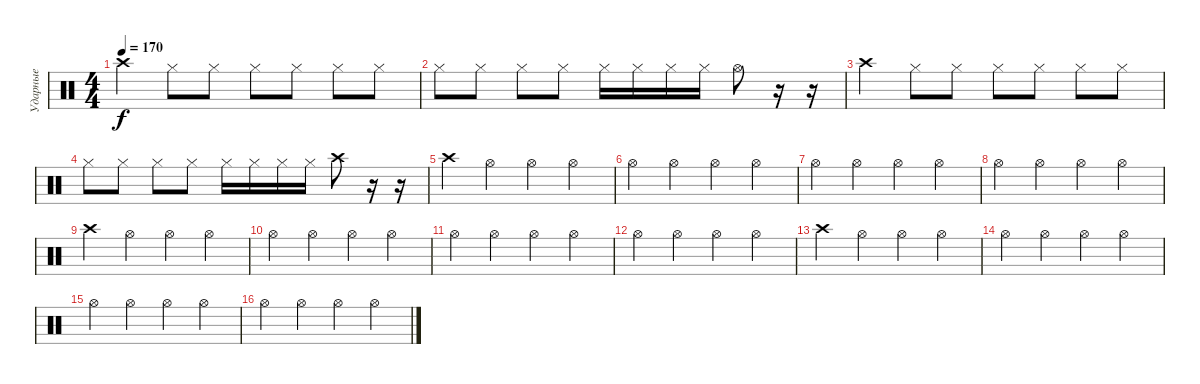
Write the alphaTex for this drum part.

\track ("Ударные" "Ударные") {instrument percussion}
\staff {score}
\articulation defaults
\ts (4 4)
\tempo 170
\clef neutral
\ks c "Crash high (hit)".4{dy f} "Hi-Hat (closed)".8 "Hi-Hat (closed)".8 "Hi-Hat (closed)".8 "Hi-Hat (closed)".8 "Hi-Hat (closed)".8 "Hi-Hat (closed)".8
|
"Hi-Hat (closed)".8 "Hi-Hat (closed)".8 "Hi-Hat (closed)".8 "Hi-Hat (closed)".8 "Hi-Hat (closed)".16 "Hi-Hat (closed)".16 "Hi-Hat (closed)".16 "Hi-Hat (closed)".16 "Hi-Hat (open)".8 r.16 r.16 |
"Crash high (hit)".4 "Hi-Hat (closed)".8 "Hi-Hat (closed)".8 "Hi-Hat (closed)".8 "Hi-Hat (closed)".8 "Hi-Hat (closed)".8 "Hi-Hat (closed)".8 |
"Hi-Hat (closed)".8 "Hi-Hat (closed)".8 "Hi-Hat (closed)".8 "Hi-Hat (closed)".8 "Hi-Hat (closed)".16 "Hi-Hat (closed)".16 "Hi-Hat (closed)".16 "Hi-Hat (closed)".16 "Crash high (hit)".8 r.16 r.16 |
"Crash high (hit)".4 "Hi-Hat (open)".4 "Hi-Hat (open)".4 "Hi-Hat (open)".4 |
"Hi-Hat (open)".4 "Hi-Hat (open)".4 "Hi-Hat (open)".4 "Hi-Hat (open)".4 |
"Hi-Hat (open)".4 "Hi-Hat (open)".4 "Hi-Hat (open)".4 "Hi-Hat (open)".4 |
"Hi-Hat (open)".4 "Hi-Hat (open)".4 "Hi-Hat (open)".4 "Hi-Hat (open)".4 |
"Crash high (hit)".4 "Hi-Hat (open)".4 "Hi-Hat (open)".4 "Hi-Hat (open)".4 |
"Hi-Hat (open)".4 "Hi-Hat (open)".4 "Hi-Hat (open)".4 "Hi-Hat (open)".4 |
"Hi-Hat (open)".4 "Hi-Hat (open)".4 "Hi-Hat (open)".4 "Hi-Hat (open)".4 |
"Hi-Hat (open)".4 "Hi-Hat (open)".4 "Hi-Hat (open)".4 "Hi-Hat (open)".4 |
"Crash high (hit)".4 "Hi-Hat (open)".4 "Hi-Hat (open)".4 "Hi-Hat (open)".4 |
"Hi-Hat (open)".4 "Hi-Hat (open)".4 "Hi-Hat (open)".4 "Hi-Hat (open)".4 |
"Hi-Hat (open)".4 "Hi-Hat (open)".4 "Hi-Hat (open)".4 "Hi-Hat (open)".4 |
"Hi-Hat (open)".4 "Hi-Hat (open)".4 "Hi-Hat (open)".4 "Hi-Hat (open)".4
